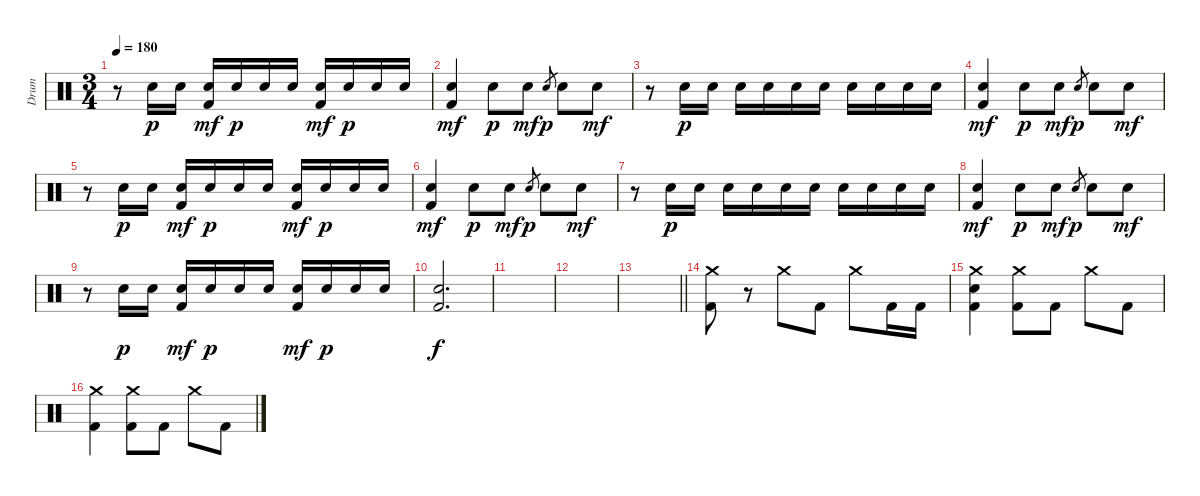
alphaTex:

\track ("Drum" "Drum") {instrument percussion}
\staff {score}
\articulation defaults
\ts (3 4)
\tempo 180
\clef neutral
\ks c
r.8{dy mf} "Snare (hit) 2".16{dy p} "Snare (hit) 2".16 ("Snare (hit) 2" "Kick (hit) 2").16{dy mf} "Snare (hit) 2".16{dy p} "Snare (hit) 2".16 "Snare (hit) 2".16 ("Snare (hit) 2" "Kick (hit) 2").16{dy mf} "Snare (hit) 2".16{dy p} "Snare (hit) 2".16 "Snare (hit) 2".16 |
("Snare (hit) 2" "Kick (hit) 2").4{dy mf} "Snare (hit) 2".8{dy p} "Snare (hit) 2".8{dy mf} "Snare (hit) 2".8{gr dy p} "Snare (hit) 2".8 "Snare (hit) 2".8{dy mf} |
r.8 "Snare (hit) 2".16{dy p} "Snare (hit) 2".16 "Snare (hit) 2".16 "Snare (hit) 2".16 "Snare (hit) 2".16 "Snare (hit) 2".16 "Snare (hit) 2".16 "Snare (hit) 2".16 "Snare (hit) 2".16 "Snare (hit) 2".16 |
("Snare (hit) 2" "Kick (hit) 2").4{dy mf} "Snare (hit) 2".8{dy p} "Snare (hit) 2".8{dy mf} "Snare (hit) 2".8{gr dy p} "Snare (hit) 2".8 "Snare (hit) 2".8{dy mf} |
r.8 "Snare (hit) 2".16{dy p} "Snare (hit) 2".16 ("Snare (hit) 2" "Kick (hit) 2").16{dy mf} "Snare (hit) 2".16{dy p} "Snare (hit) 2".16 "Snare (hit) 2".16 ("Snare (hit) 2" "Kick (hit) 2").16{dy mf} "Snare (hit) 2".16{dy p} "Snare (hit) 2".16 "Snare (hit) 2".16 |
("Snare (hit) 2" "Kick (hit) 2").4{dy mf} "Snare (hit) 2".8{dy p} "Snare (hit) 2".8{dy mf} "Snare (hit) 2".8{gr dy p} "Snare (hit) 2".8 "Snare (hit) 2".8{dy mf} |
r.8 "Snare (hit) 2".16{dy p} "Snare (hit) 2".16 "Snare (hit) 2".16 "Snare (hit) 2".16 "Snare (hit) 2".16 "Snare (hit) 2".16 "Snare (hit) 2".16 "Snare (hit) 2".16 "Snare (hit) 2".16 "Snare (hit) 2".16 |
("Snare (hit) 2" "Kick (hit) 2").4{dy mf} "Snare (hit) 2".8{dy p} "Snare (hit) 2".8{dy mf} "Snare (hit) 2".8{gr dy p} "Snare (hit) 2".8 "Snare (hit) 2".8{dy mf} |
r.8 "Snare (hit) 2".16{dy p} "Snare (hit) 2".16 ("Snare (hit) 2" "Kick (hit) 2").16{dy mf} "Snare (hit) 2".16{dy p} "Snare (hit) 2".16 "Snare (hit) 2".16 ("Snare (hit) 2" "Kick (hit) 2").16{dy mf} "Snare (hit) 2".16{dy p} "Snare (hit) 2".16 "Snare (hit) 2".16 |
("Snare (hit) 2" "Kick (hit) 2").2{d dy f} |
|
|
\barLineRight lightlight
|
("Crash medium (hit)" "Kick (hit) 2").8 r.8 "Crash medium (hit)".8 "Kick (hit) 2".8 "Crash medium (hit)".8 "Kick (hit) 2".16 "Kick (hit) 2".16 |
("Crash medium (hit)" "Snare (hit) 2" "Kick (hit) 2").4 ("Crash medium (hit)" "Kick (hit) 2").8 "Kick (hit) 2".8 "Crash medium (hit)".8 "Kick (hit) 2".8 |
("Crash medium (hit)" "Kick (hit) 2").4 ("Crash medium (hit)" "Kick (hit) 2").8 "Kick (hit) 2".8 "Crash medium (hit)".8 "Kick (hit) 2".8
